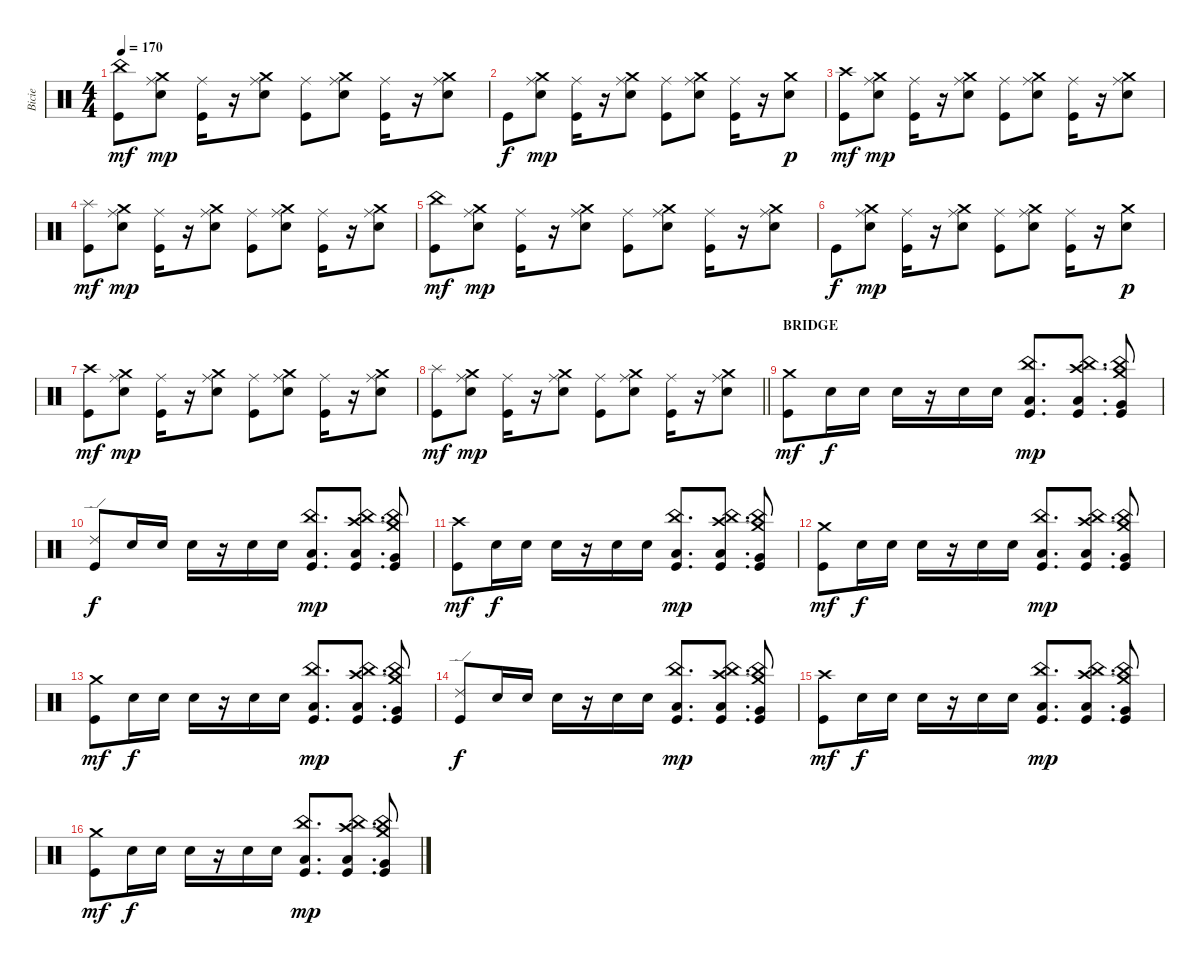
\track ("Bicie" "Bicie") {instrument percussion}
\staff {score}
\articulation defaults
\ts (4 4)
\tempo 170
\clef neutral
\ks c
("Kick (hit)" "China (hit)").8{dy mf} ("Snare (hit) 2" "Crash medium (hit)" "Ride (middle)").8{dy mp} ("Kick (hit)" "Ride (middle)").16 r.16 ("Snare (hit) 2" "Crash medium (hit)" "Ride (middle)").8 ("Kick (hit)" "Ride (middle)").8 ("Snare (hit) 2" "Crash medium (hit)" "Ride (middle)").8 ("Kick (hit)" "Ride (middle)").16 r.16 ("Snare (hit) 2" "Crash medium (hit)" "Ride (middle)").8 |
"Kick (hit)".8{dy f} ("Snare (hit) 2" "Crash medium (hit)" "Ride (middle)").8{dy mp} ("Kick (hit)" "Ride (middle)").16 r.16 ("Snare (hit) 2" "Crash medium (hit)" "Ride (middle)").8 ("Kick (hit)" "Ride (middle)").8 ("Snare (hit) 2" "Crash medium (hit)" "Ride (middle)").8 ("Kick (hit)" "Ride (middle)").16 r.16 ("Snare (hit) 2" "Crash medium (hit)").8{dy p} |
("Kick (hit)" "Crash high (hit)").8{dy mf} ("Snare (hit) 2" "Crash medium (hit)" "Ride (middle)").8{dy mp} ("Kick (hit)" "Ride (middle)").16 r.16 ("Snare (hit) 2" "Crash medium (hit)" "Ride (middle)").8 ("Kick (hit)" "Ride (middle)").8 ("Snare (hit) 2" "Crash medium (hit)" "Ride (middle)").8 ("Kick (hit)" "Ride (middle)").16 r.16 ("Snare (hit) 2" "Crash medium (hit)" "Ride (middle)").8 |
("Kick (hit)" "Splash (hit)").8{dy mf} ("Snare (hit) 2" "Crash medium (hit)" "Ride (middle)").8{dy mp} ("Kick (hit)" "Ride (middle)").16 r.16 ("Snare (hit) 2" "Crash medium (hit)" "Ride (middle)").8 ("Kick (hit)" "Ride (middle)").8 ("Snare (hit) 2" "Crash medium (hit)" "Ride (middle)").8 ("Kick (hit)" "Ride (middle)").16 r.16 ("Snare (hit) 2" "Crash medium (hit)" "Ride (middle)").8 |
("Kick (hit)" "China (hit)").8{dy mf} ("Snare (hit) 2" "Crash medium (hit)" "Ride (middle)").8{dy mp} ("Kick (hit)" "Ride (middle)").16 r.16 ("Snare (hit) 2" "Crash medium (hit)" "Ride (middle)").8 ("Kick (hit)" "Ride (middle)").8 ("Snare (hit) 2" "Crash medium (hit)" "Ride (middle)").8 ("Kick (hit)" "Ride (middle)").16 r.16 ("Snare (hit) 2" "Crash medium (hit)" "Ride (middle)").8 |
"Kick (hit)".8{dy f} ("Snare (hit) 2" "Crash medium (hit)" "Ride (middle)").8{dy mp} ("Kick (hit)" "Ride (middle)").16 r.16 ("Snare (hit) 2" "Crash medium (hit)" "Ride (middle)").8 ("Kick (hit)" "Ride (middle)").8 ("Snare (hit) 2" "Crash medium (hit)" "Ride (middle)").8 ("Kick (hit)" "Ride (middle)").16 r.16 ("Snare (hit) 2" "Crash medium (hit)").8{dy p} |
("Kick (hit)" "Crash high (hit)").8{dy mf} ("Snare (hit) 2" "Crash medium (hit)" "Ride (middle)").8{dy mp} ("Kick (hit)" "Ride (middle)").16 r.16 ("Snare (hit) 2" "Crash medium (hit)" "Ride (middle)").8 ("Kick (hit)" "Ride (middle)").8 ("Snare (hit) 2" "Crash medium (hit)" "Ride (middle)").8 ("Kick (hit)" "Ride (middle)").16 r.16 ("Snare (hit) 2" "Crash medium (hit)" "Ride (middle)").8 |
\barLineRight lightlight
("Kick (hit)" "Splash (hit)").8{dy mf} ("Snare (hit) 2" "Crash medium (hit)" "Ride (middle)").8{dy mp} ("Kick (hit)" "Ride (middle)").16 r.16 ("Snare (hit) 2" "Crash medium (hit)" "Ride (middle)").8 ("Kick (hit)" "Ride (middle)").8 ("Snare (hit) 2" "Crash medium (hit)" "Ride (middle)").8 ("Kick (hit)" "Ride (middle)").16 r.16 ("Snare (hit) 2" "Crash medium (hit)" "Ride (middle)").8 |
\section ("" "BRIDGE")
("Kick (hit)" "Crash medium (hit)").8{dy mf} "Snare (hit) 2".16{dy f} "Snare (hit) 2".16 "Snare (hit) 2".16 r.16 "Snare (hit) 2".16 "Snare (hit) 2".16 ("Kick (hit)" "Low Floor Tom (hit)" "China (hit)").8{d dy mp} ("Kick (hit)" "Low Floor Tom (hit)" "Crash high (hit)" "China (hit)").8{d} ("Kick (hit)" "Very Low Tom (hit)" "Crash medium (hit)" "China (hit)").8 |
("Kick (hit)" "Ride (edge) 2").8{dy f} "Snare (hit) 2".16 "Snare (hit) 2".16 "Snare (hit) 2".16 r.16 "Snare (hit) 2".16 "Snare (hit) 2".16 ("Kick (hit)" "Low Floor Tom (hit)" "China (hit)").8{d dy mp} ("Kick (hit)" "Low Floor Tom (hit)" "Crash high (hit)" "China (hit)").8{d} ("Kick (hit)" "Very Low Tom (hit)" "Crash medium (hit)" "China (hit)").8 |
("Kick (hit)" "Crash high (hit)").8{dy mf} "Snare (hit) 2".16{dy f} "Snare (hit) 2".16 "Snare (hit) 2".16 r.16 "Snare (hit) 2".16 "Snare (hit) 2".16 ("Kick (hit)" "Low Floor Tom (hit)" "China (hit)").8{d dy mp} ("Kick (hit)" "Low Floor Tom (hit)" "Crash high (hit)" "China (hit)").8{d} ("Kick (hit)" "Very Low Tom (hit)" "Crash medium (hit)" "China (hit)").8 |
("Kick (hit)" "Crash medium (hit)").8{dy mf} "Snare (hit) 2".16{dy f} "Snare (hit) 2".16 "Snare (hit) 2".16 r.16 "Snare (hit) 2".16 "Snare (hit) 2".16 ("Kick (hit)" "Low Floor Tom (hit)" "China (hit)").8{d dy mp} ("Kick (hit)" "Low Floor Tom (hit)" "Crash high (hit)" "China (hit)").8{d} ("Kick (hit)" "Very Low Tom (hit)" "Crash medium (hit)" "China (hit)").8 |
("Kick (hit)" "Crash medium (hit)").8{dy mf} "Snare (hit) 2".16{dy f} "Snare (hit) 2".16 "Snare (hit) 2".16 r.16 "Snare (hit) 2".16 "Snare (hit) 2".16 ("Kick (hit)" "Low Floor Tom (hit)" "China (hit)").8{d dy mp} ("Kick (hit)" "Low Floor Tom (hit)" "Crash high (hit)" "China (hit)").8{d} ("Kick (hit)" "Very Low Tom (hit)" "Crash medium (hit)" "China (hit)").8 |
("Kick (hit)" "Ride (edge) 2").8{dy f} "Snare (hit) 2".16 "Snare (hit) 2".16 "Snare (hit) 2".16 r.16 "Snare (hit) 2".16 "Snare (hit) 2".16 ("Kick (hit)" "Low Floor Tom (hit)" "China (hit)").8{d dy mp} ("Kick (hit)" "Low Floor Tom (hit)" "Crash high (hit)" "China (hit)").8{d} ("Kick (hit)" "Very Low Tom (hit)" "Crash medium (hit)" "China (hit)").8 |
("Kick (hit)" "Crash high (hit)").8{dy mf} "Snare (hit) 2".16{dy f} "Snare (hit) 2".16 "Snare (hit) 2".16 r.16 "Snare (hit) 2".16 "Snare (hit) 2".16 ("Kick (hit)" "Low Floor Tom (hit)" "China (hit)").8{d dy mp} ("Kick (hit)" "Low Floor Tom (hit)" "Crash high (hit)" "China (hit)").8{d} ("Kick (hit)" "Very Low Tom (hit)" "Crash medium (hit)" "China (hit)").8 |
("Kick (hit)" "Crash medium (hit)").8{dy mf} "Snare (hit) 2".16{dy f} "Snare (hit) 2".16 "Snare (hit) 2".16 r.16 "Snare (hit) 2".16 "Snare (hit) 2".16 ("Kick (hit)" "Low Floor Tom (hit)" "China (hit)").8{d dy mp} ("Kick (hit)" "Low Floor Tom (hit)" "Crash high (hit)" "China (hit)").8{d} ("Kick (hit)" "Very Low Tom (hit)" "Crash medium (hit)" "China (hit)").8
